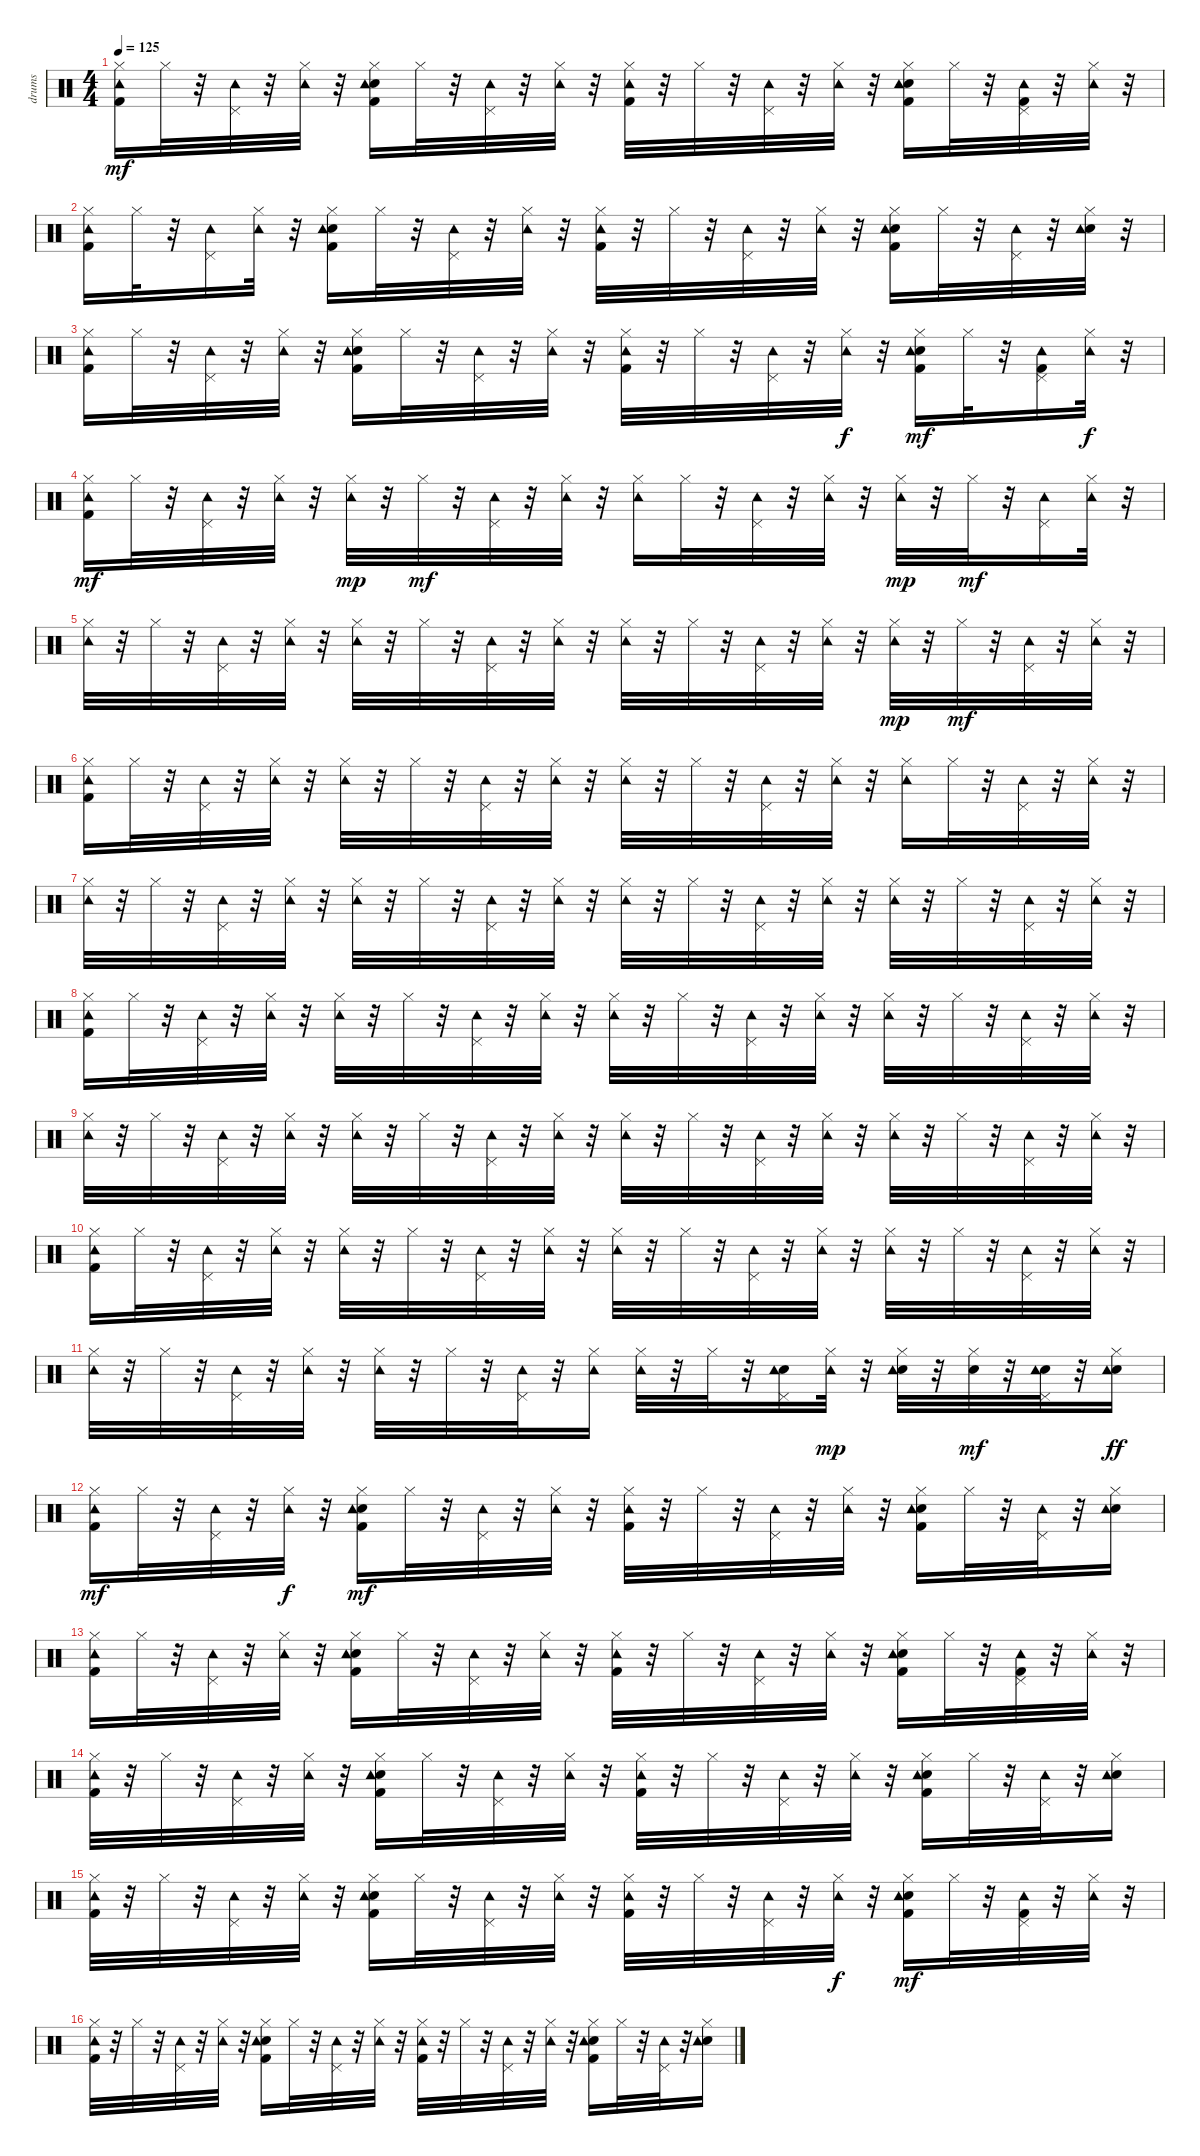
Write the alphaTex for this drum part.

\track ("drums   " "drums   ") {instrument percussion}
\staff {score}
\articulation defaults
\ts (4 4)
\tempo 125
\clef neutral
\ks c
("Kick (hit) 2" "Hi-Hat (closed)" "Tambourine (hit)").16{dy mf} "Hi-Hat (closed)".32 r.32 ("Pedal Hi-Hat (hit)" "Tambourine (hit)").32 r.32 ("Hi-Hat (closed)" "Tambourine (hit)").32 r.32 ("Kick (hit) 2" "Snare (hit) 2" "Hi-Hat (closed)" "Tambourine (hit)").16 "Hi-Hat (closed)".32 r.32 ("Pedal Hi-Hat (hit)" "Tambourine (hit)").32 r.32 ("Hi-Hat (closed)" "Tambourine (hit)").32 r.32 ("Kick (hit) 2" "Hi-Hat (closed)" "Tambourine (hit)").32 r.32 "Hi-Hat (closed)".32 r.32 ("Pedal Hi-Hat (hit)" "Tambourine (hit)").32 r.32 ("Hi-Hat (closed)" "Tambourine (hit)").32 r.32 ("Kick (hit) 2" "Snare (hit) 2" "Hi-Hat (closed)" "Tambourine (hit)").16 "Hi-Hat (closed)".32 r.32 ("Kick (hit) 2" "Pedal Hi-Hat (hit)" "Tambourine (hit)").32 r.32 ("Hi-Hat (closed)" "Tambourine (hit)").32 r.32 |
("Kick (hit) 2" "Hi-Hat (closed)" "Tambourine (hit)").16 "Hi-Hat (closed)".32 r.32 ("Pedal Hi-Hat (hit)" "Tambourine (hit)").16 ("Hi-Hat (closed)" "Tambourine (hit)").32 r.32 ("Kick (hit) 2" "Snare (hit) 2" "Hi-Hat (closed)" "Tambourine (hit)").16 "Hi-Hat (closed)".32 r.32 ("Pedal Hi-Hat (hit)" "Tambourine (hit)").32 r.32 ("Hi-Hat (closed)" "Tambourine (hit)").32 r.32 ("Kick (hit) 2" "Hi-Hat (closed)" "Tambourine (hit)").32 r.32 "Hi-Hat (closed)".32 r.32 ("Pedal Hi-Hat (hit)" "Tambourine (hit)").32 r.32 ("Hi-Hat (closed)" "Tambourine (hit)").32 r.32 ("Kick (hit) 2" "Snare (hit) 2" "Hi-Hat (closed)" "Tambourine (hit)").16 "Hi-Hat (closed)".32 r.32 ("Pedal Hi-Hat (hit)" "Tambourine (hit)").32 r.32 ("Snare (hit) 2" "Hi-Hat (closed)" "Tambourine (hit)").32 r.32 |
("Kick (hit) 2" "Hi-Hat (closed)" "Tambourine (hit)").16 "Hi-Hat (closed)".32 r.32 ("Pedal Hi-Hat (hit)" "Tambourine (hit)").32 r.32 ("Hi-Hat (closed)" "Tambourine (hit)").32 r.32 ("Kick (hit) 2" "Snare (hit) 2" "Hi-Hat (closed)" "Tambourine (hit)").16 "Hi-Hat (closed)".32 r.32 ("Pedal Hi-Hat (hit)" "Tambourine (hit)").32 r.32 ("Hi-Hat (closed)" "Tambourine (hit)").32 r.32 ("Kick (hit) 2" "Hi-Hat (closed)" "Tambourine (hit)").32 r.32 "Hi-Hat (closed)".32 r.32 ("Pedal Hi-Hat (hit)" "Tambourine (hit)").32 r.32 ("Hi-Hat (closed)" "Tambourine (hit)").32{dy f} r.32 ("Kick (hit) 2" "Snare (hit) 2" "Hi-Hat (closed)" "Tambourine (hit)").16{dy mf} "Hi-Hat (closed)".32 r.32 ("Kick (hit) 2" "Pedal Hi-Hat (hit)" "Tambourine (hit)").16 ("Hi-Hat (closed)" "Tambourine (hit)").32{dy f} r.32 |
("Kick (hit) 2" "Hi-Hat (closed)" "Tambourine (hit)").16{dy mf} "Hi-Hat (closed)".32 r.32 ("Pedal Hi-Hat (hit)" "Tambourine (hit)").32 r.32 ("Hi-Hat (closed)" "Tambourine (hit)").32 r.32 ("Hi-Hat (closed)" "Tambourine (hit)").32{dy mp} r.32 "Hi-Hat (closed)".32{dy mf} r.32 ("Pedal Hi-Hat (hit)" "Tambourine (hit)").32 r.32 ("Hi-Hat (closed)" "Tambourine (hit)").32 r.32 ("Hi-Hat (closed)" "Tambourine (hit)").16 "Hi-Hat (closed)".32 r.32 ("Pedal Hi-Hat (hit)" "Tambourine (hit)").32 r.32 ("Hi-Hat (closed)" "Tambourine (hit)").32 r.32 ("Hi-Hat (closed)" "Tambourine (hit)").32{dy mp} r.32 "Hi-Hat (closed)".32{dy mf} r.32 ("Pedal Hi-Hat (hit)" "Tambourine (hit)").16 ("Hi-Hat (closed)" "Tambourine (hit)").32 r.32 |
("Hi-Hat (closed)" "Tambourine (hit)").32 r.32 "Hi-Hat (closed)".32 r.32 ("Pedal Hi-Hat (hit)" "Tambourine (hit)").32 r.32 ("Hi-Hat (closed)" "Tambourine (hit)").32 r.32 ("Hi-Hat (closed)" "Tambourine (hit)").32 r.32 "Hi-Hat (closed)".32 r.32 ("Pedal Hi-Hat (hit)" "Tambourine (hit)").32 r.32 ("Hi-Hat (closed)" "Tambourine (hit)").32 r.32 ("Hi-Hat (closed)" "Tambourine (hit)").32 r.32 "Hi-Hat (closed)".32 r.32 ("Pedal Hi-Hat (hit)" "Tambourine (hit)").32 r.32 ("Hi-Hat (closed)" "Tambourine (hit)").32 r.32 ("Hi-Hat (closed)" "Tambourine (hit)").32{dy mp} r.32 "Hi-Hat (closed)".32{dy mf} r.32 ("Pedal Hi-Hat (hit)" "Tambourine (hit)").32 r.32 ("Hi-Hat (closed)" "Tambourine (hit)").32 r.32 |
("Kick (hit) 2" "Hi-Hat (closed)" "Tambourine (hit)").16 "Hi-Hat (closed)".32 r.32 ("Pedal Hi-Hat (hit)" "Tambourine (hit)").32 r.32 ("Hi-Hat (closed)" "Tambourine (hit)").32 r.32 ("Hi-Hat (closed)" "Tambourine (hit)").32 r.32 "Hi-Hat (closed)".32 r.32 ("Pedal Hi-Hat (hit)" "Tambourine (hit)").32 r.32 ("Hi-Hat (closed)" "Tambourine (hit)").32 r.32 ("Hi-Hat (closed)" "Tambourine (hit)").32 r.32 "Hi-Hat (closed)".32 r.32 ("Pedal Hi-Hat (hit)" "Tambourine (hit)").32 r.32 ("Hi-Hat (closed)" "Tambourine (hit)").32 r.32 ("Hi-Hat (closed)" "Tambourine (hit)").16 "Hi-Hat (closed)".32 r.32 ("Pedal Hi-Hat (hit)" "Tambourine (hit)").32 r.32 ("Hi-Hat (closed)" "Tambourine (hit)").32 r.32 |
("Hi-Hat (closed)" "Tambourine (hit)").32 r.32 "Hi-Hat (closed)".32 r.32 ("Pedal Hi-Hat (hit)" "Tambourine (hit)").32 r.32 ("Hi-Hat (closed)" "Tambourine (hit)").32 r.32 ("Hi-Hat (closed)" "Tambourine (hit)").32 r.32 "Hi-Hat (closed)".32 r.32 ("Pedal Hi-Hat (hit)" "Tambourine (hit)").32 r.32 ("Hi-Hat (closed)" "Tambourine (hit)").32 r.32 ("Hi-Hat (closed)" "Tambourine (hit)").32 r.32 "Hi-Hat (closed)".32 r.32 ("Pedal Hi-Hat (hit)" "Tambourine (hit)").32 r.32 ("Hi-Hat (closed)" "Tambourine (hit)").32 r.32 ("Hi-Hat (closed)" "Tambourine (hit)").32 r.32 "Hi-Hat (closed)".32 r.32 ("Pedal Hi-Hat (hit)" "Tambourine (hit)").32 r.32 ("Hi-Hat (closed)" "Tambourine (hit)").32 r.32 |
("Kick (hit) 2" "Hi-Hat (closed)" "Tambourine (hit)").16 "Hi-Hat (closed)".32 r.32 ("Pedal Hi-Hat (hit)" "Tambourine (hit)").32 r.32 ("Hi-Hat (closed)" "Tambourine (hit)").32 r.32 ("Hi-Hat (closed)" "Tambourine (hit)").32 r.32 "Hi-Hat (closed)".32 r.32 ("Pedal Hi-Hat (hit)" "Tambourine (hit)").32 r.32 ("Hi-Hat (closed)" "Tambourine (hit)").32 r.32 ("Hi-Hat (closed)" "Tambourine (hit)").32 r.32 "Hi-Hat (closed)".32 r.32 ("Pedal Hi-Hat (hit)" "Tambourine (hit)").32 r.32 ("Hi-Hat (closed)" "Tambourine (hit)").32 r.32 ("Hi-Hat (closed)" "Tambourine (hit)").32 r.32 "Hi-Hat (closed)".32 r.32 ("Pedal Hi-Hat (hit)" "Tambourine (hit)").32 r.32 ("Hi-Hat (closed)" "Tambourine (hit)").32 r.32 |
("Hi-Hat (closed)" "Tambourine (hit)").32 r.32 "Hi-Hat (closed)".32 r.32 ("Pedal Hi-Hat (hit)" "Tambourine (hit)").32 r.32 ("Hi-Hat (closed)" "Tambourine (hit)").32 r.32 ("Hi-Hat (closed)" "Tambourine (hit)").32 r.32 "Hi-Hat (closed)".32 r.32 ("Pedal Hi-Hat (hit)" "Tambourine (hit)").32 r.32 ("Hi-Hat (closed)" "Tambourine (hit)").32 r.32 ("Hi-Hat (closed)" "Tambourine (hit)").32 r.32 "Hi-Hat (closed)".32 r.32 ("Pedal Hi-Hat (hit)" "Tambourine (hit)").32 r.32 ("Hi-Hat (closed)" "Tambourine (hit)").32 r.32 ("Hi-Hat (closed)" "Tambourine (hit)").32 r.32 "Hi-Hat (closed)".32 r.32 ("Pedal Hi-Hat (hit)" "Tambourine (hit)").32 r.32 ("Hi-Hat (closed)" "Tambourine (hit)").32 r.32 |
("Kick (hit) 2" "Hi-Hat (closed)" "Tambourine (hit)").16 "Hi-Hat (closed)".32 r.32 ("Pedal Hi-Hat (hit)" "Tambourine (hit)").32 r.32 ("Hi-Hat (closed)" "Tambourine (hit)").32 r.32 ("Hi-Hat (closed)" "Tambourine (hit)").32 r.32 "Hi-Hat (closed)".32 r.32 ("Pedal Hi-Hat (hit)" "Tambourine (hit)").32 r.32 ("Hi-Hat (closed)" "Tambourine (hit)").32 r.32 ("Hi-Hat (closed)" "Tambourine (hit)").32 r.32 "Hi-Hat (closed)".32 r.32 ("Pedal Hi-Hat (hit)" "Tambourine (hit)").32 r.32 ("Hi-Hat (closed)" "Tambourine (hit)").32 r.32 ("Hi-Hat (closed)" "Tambourine (hit)").32 r.32 "Hi-Hat (closed)".32 r.32 ("Pedal Hi-Hat (hit)" "Tambourine (hit)").32 r.32 ("Hi-Hat (closed)" "Tambourine (hit)").32 r.32 |
("Hi-Hat (closed)" "Tambourine (hit)").32 r.32 "Hi-Hat (closed)".32 r.32 ("Pedal Hi-Hat (hit)" "Tambourine (hit)").32 r.32 ("Hi-Hat (closed)" "Tambourine (hit)").32 r.32 ("Hi-Hat (closed)" "Tambourine (hit)").32 r.32 "Hi-Hat (closed)".32 r.32 ("Pedal Hi-Hat (hit)" "Tambourine (hit)").32 r.32 ("Hi-Hat (closed)" "Tambourine (hit)").16 ("Hi-Hat (closed)" "Tambourine (hit)").32 r.32 "Hi-Hat (closed)".32 r.32 ("Snare (hit) 2" "Pedal Hi-Hat (hit)" "Tambourine (hit)").16 ("Hi-Hat (closed)" "Tambourine (hit)").32{dy mp} r.32 ("Snare (hit) 2" "Hi-Hat (closed)" "Tambourine (hit)").32 r.32 ("Snare (hit) 2" "Hi-Hat (closed)").32{dy mf} r.32 ("Snare (hit) 2" "Pedal Hi-Hat (hit)" "Tambourine (hit)").32 r.32 ("Snare (hit) 2" "Hi-Hat (closed)" "Tambourine (hit)").16{dy ff} |
("Kick (hit) 2" "Hi-Hat (closed)" "Tambourine (hit)").16{dy mf} "Hi-Hat (closed)".32 r.32 ("Pedal Hi-Hat (hit)" "Tambourine (hit)").32 r.32 ("Hi-Hat (closed)" "Tambourine (hit)").32{dy f} r.32 ("Kick (hit) 2" "Snare (hit) 2" "Hi-Hat (closed)" "Tambourine (hit)").16{dy mf} "Hi-Hat (closed)".32 r.32 ("Pedal Hi-Hat (hit)" "Tambourine (hit)").32 r.32 ("Hi-Hat (closed)" "Tambourine (hit)").32 r.32 ("Kick (hit) 2" "Hi-Hat (closed)" "Tambourine (hit)").32 r.32 "Hi-Hat (closed)".32 r.32 ("Pedal Hi-Hat (hit)" "Tambourine (hit)").32 r.32 ("Hi-Hat (closed)" "Tambourine (hit)").32 r.32 ("Kick (hit) 2" "Snare (hit) 2" "Hi-Hat (closed)" "Tambourine (hit)").16 "Hi-Hat (closed)".32 r.32 ("Pedal Hi-Hat (hit)" "Tambourine (hit)").32 r.32 ("Snare (hit) 2" "Hi-Hat (closed)" "Tambourine (hit)").16 |
("Kick (hit) 2" "Hi-Hat (closed)" "Tambourine (hit)").16 "Hi-Hat (closed)".32 r.32 ("Pedal Hi-Hat (hit)" "Tambourine (hit)").32 r.32 ("Hi-Hat (closed)" "Tambourine (hit)").32 r.32 ("Kick (hit) 2" "Snare (hit) 2" "Hi-Hat (closed)" "Tambourine (hit)").16 "Hi-Hat (closed)".32 r.32 ("Pedal Hi-Hat (hit)" "Tambourine (hit)").32 r.32 ("Hi-Hat (closed)" "Tambourine (hit)").32 r.32 ("Kick (hit) 2" "Hi-Hat (closed)" "Tambourine (hit)").32 r.32 "Hi-Hat (closed)".32 r.32 ("Pedal Hi-Hat (hit)" "Tambourine (hit)").32 r.32 ("Hi-Hat (closed)" "Tambourine (hit)").32 r.32 ("Kick (hit) 2" "Snare (hit) 2" "Hi-Hat (closed)" "Tambourine (hit)").16 "Hi-Hat (closed)".32 r.32 ("Kick (hit) 2" "Pedal Hi-Hat (hit)" "Tambourine (hit)").32 r.32 ("Hi-Hat (closed)" "Tambourine (hit)").32 r.32 |
("Kick (hit) 2" "Hi-Hat (closed)" "Tambourine (hit)").32 r.32 "Hi-Hat (closed)".32 r.32 ("Pedal Hi-Hat (hit)" "Tambourine (hit)").32 r.32 ("Hi-Hat (closed)" "Tambourine (hit)").32 r.32 ("Kick (hit) 2" "Snare (hit) 2" "Hi-Hat (closed)" "Tambourine (hit)").16 "Hi-Hat (closed)".32 r.32 ("Pedal Hi-Hat (hit)" "Tambourine (hit)").32 r.32 ("Hi-Hat (closed)" "Tambourine (hit)").32 r.32 ("Kick (hit) 2" "Hi-Hat (closed)" "Tambourine (hit)").32 r.32 "Hi-Hat (closed)".32 r.32 ("Pedal Hi-Hat (hit)" "Tambourine (hit)").32 r.32 ("Hi-Hat (closed)" "Tambourine (hit)").32 r.32 ("Kick (hit) 2" "Snare (hit) 2" "Hi-Hat (closed)" "Tambourine (hit)").16 "Hi-Hat (closed)".32 r.32 ("Pedal Hi-Hat (hit)" "Tambourine (hit)").32 r.32 ("Snare (hit) 2" "Hi-Hat (closed)" "Tambourine (hit)").16 |
("Kick (hit) 2" "Hi-Hat (closed)" "Tambourine (hit)").32 r.32 "Hi-Hat (closed)".32 r.32 ("Pedal Hi-Hat (hit)" "Tambourine (hit)").32 r.32 ("Hi-Hat (closed)" "Tambourine (hit)").32 r.32 ("Kick (hit) 2" "Snare (hit) 2" "Hi-Hat (closed)" "Tambourine (hit)").16 "Hi-Hat (closed)".32 r.32 ("Pedal Hi-Hat (hit)" "Tambourine (hit)").32 r.32 ("Hi-Hat (closed)" "Tambourine (hit)").32 r.32 ("Kick (hit) 2" "Hi-Hat (closed)" "Tambourine (hit)").32 r.32 "Hi-Hat (closed)".32 r.32 ("Pedal Hi-Hat (hit)" "Tambourine (hit)").32 r.32 ("Hi-Hat (closed)" "Tambourine (hit)").32{dy f} r.32 ("Kick (hit) 2" "Snare (hit) 2" "Hi-Hat (closed)" "Tambourine (hit)").16{dy mf} "Hi-Hat (closed)".32 r.32 ("Kick (hit) 2" "Pedal Hi-Hat (hit)" "Tambourine (hit)").32 r.32 ("Hi-Hat (closed)" "Tambourine (hit)").32 r.32 |
("Kick (hit) 2" "Hi-Hat (closed)" "Tambourine (hit)").32 r.32 "Hi-Hat (closed)".32 r.32 ("Pedal Hi-Hat (hit)" "Tambourine (hit)").32 r.32 ("Hi-Hat (closed)" "Tambourine (hit)").32 r.32 ("Kick (hit) 2" "Snare (hit) 2" "Hi-Hat (closed)" "Tambourine (hit)").16 "Hi-Hat (closed)".32 r.32 ("Pedal Hi-Hat (hit)" "Tambourine (hit)").32 r.32 ("Hi-Hat (closed)" "Tambourine (hit)").32 r.32 ("Kick (hit) 2" "Hi-Hat (closed)" "Tambourine (hit)").32 r.32 "Hi-Hat (closed)".32 r.32 ("Pedal Hi-Hat (hit)" "Tambourine (hit)").32 r.32 ("Hi-Hat (closed)" "Tambourine (hit)").32 r.32 ("Kick (hit) 2" "Snare (hit) 2" "Hi-Hat (closed)" "Tambourine (hit)").16 "Hi-Hat (closed)".32 r.32 ("Pedal Hi-Hat (hit)" "Tambourine (hit)").32 r.32 ("Snare (hit) 2" "Hi-Hat (closed)" "Tambourine (hit)").16
